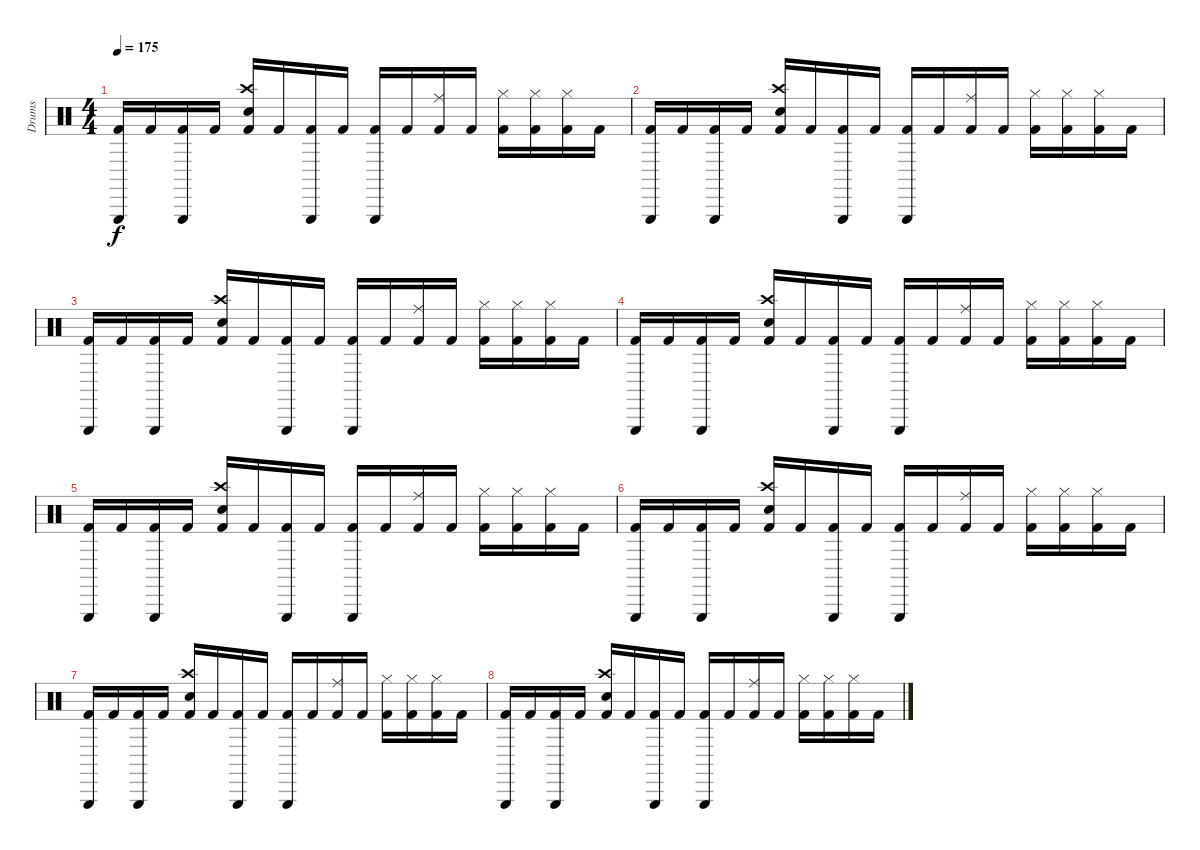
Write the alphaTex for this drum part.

\track ("Drums" "Drums") {instrument percussion}
\staff {score}
\articulation defaults
\ts (4 4)
\tempo 175
\clef neutral
\ks c
("Triangle (hit)" "Kick (hit) 2").16{dy f} "Kick (hit) 2".16 ("Triangle (hit)" "Kick (hit) 2").16 "Kick (hit) 2".16 ("Crash high (hit)" "Snare (hit) 2" "Kick (hit) 2").16 "Kick (hit) 2".16 ("Triangle (hit)" "Kick (hit) 2").16 "Kick (hit) 2".16 ("Triangle (hit)" "Kick (hit) 2").16 "Kick (hit) 2".16 ("Ride (middle)" "Kick (hit) 2").16 "Kick (hit) 2".16 ("Hi-Hat (closed)" "Kick (hit) 2").16 ("Hi-Hat (closed)" "Kick (hit) 2").16 ("Hi-Hat (closed)" "Kick (hit) 2").16 "Kick (hit) 2".16 |
("Triangle (hit)" "Kick (hit) 2").16 "Kick (hit) 2".16 ("Triangle (hit)" "Kick (hit) 2").16 "Kick (hit) 2".16 ("Crash high (hit)" "Snare (hit) 2" "Kick (hit) 2").16 "Kick (hit) 2".16 ("Triangle (hit)" "Kick (hit) 2").16 "Kick (hit) 2".16 ("Triangle (hit)" "Kick (hit) 2").16 "Kick (hit) 2".16 ("Ride (middle)" "Kick (hit) 2").16 "Kick (hit) 2".16 ("Hi-Hat (closed)" "Kick (hit) 2").16 ("Hi-Hat (closed)" "Kick (hit) 2").16 ("Hi-Hat (closed)" "Kick (hit) 2").16 "Kick (hit) 2".16 |
("Triangle (hit)" "Kick (hit) 2").16 "Kick (hit) 2".16 ("Triangle (hit)" "Kick (hit) 2").16 "Kick (hit) 2".16 ("Crash high (hit)" "Snare (hit) 2" "Kick (hit) 2").16 "Kick (hit) 2".16 ("Triangle (hit)" "Kick (hit) 2").16 "Kick (hit) 2".16 ("Triangle (hit)" "Kick (hit) 2").16 "Kick (hit) 2".16 ("Ride (middle)" "Kick (hit) 2").16 "Kick (hit) 2".16 ("Hi-Hat (closed)" "Kick (hit) 2").16 ("Hi-Hat (closed)" "Kick (hit) 2").16 ("Hi-Hat (closed)" "Kick (hit) 2").16 "Kick (hit) 2".16 |
("Triangle (hit)" "Kick (hit) 2").16 "Kick (hit) 2".16 ("Triangle (hit)" "Kick (hit) 2").16 "Kick (hit) 2".16 ("Crash high (hit)" "Snare (hit) 2" "Kick (hit) 2").16 "Kick (hit) 2".16 ("Triangle (hit)" "Kick (hit) 2").16 "Kick (hit) 2".16 ("Triangle (hit)" "Kick (hit) 2").16 "Kick (hit) 2".16 ("Ride (middle)" "Kick (hit) 2").16 "Kick (hit) 2".16 ("Hi-Hat (closed)" "Kick (hit) 2").16 ("Hi-Hat (closed)" "Kick (hit) 2").16 ("Hi-Hat (closed)" "Kick (hit) 2").16 "Kick (hit) 2".16 |
("Triangle (hit)" "Kick (hit) 2").16 "Kick (hit) 2".16 ("Triangle (hit)" "Kick (hit) 2").16 "Kick (hit) 2".16 ("Crash high (hit)" "Snare (hit) 2" "Kick (hit) 2").16 "Kick (hit) 2".16 ("Triangle (hit)" "Kick (hit) 2").16 "Kick (hit) 2".16 ("Triangle (hit)" "Kick (hit) 2").16 "Kick (hit) 2".16 ("Ride (middle)" "Kick (hit) 2").16 "Kick (hit) 2".16 ("Hi-Hat (closed)" "Kick (hit) 2").16 ("Hi-Hat (closed)" "Kick (hit) 2").16 ("Hi-Hat (closed)" "Kick (hit) 2").16 "Kick (hit) 2".16 |
("Triangle (hit)" "Kick (hit) 2").16 "Kick (hit) 2".16 ("Triangle (hit)" "Kick (hit) 2").16 "Kick (hit) 2".16 ("Crash high (hit)" "Snare (hit) 2" "Kick (hit) 2").16 "Kick (hit) 2".16 ("Triangle (hit)" "Kick (hit) 2").16 "Kick (hit) 2".16 ("Triangle (hit)" "Kick (hit) 2").16 "Kick (hit) 2".16 ("Ride (middle)" "Kick (hit) 2").16 "Kick (hit) 2".16 ("Hi-Hat (closed)" "Kick (hit) 2").16 ("Hi-Hat (closed)" "Kick (hit) 2").16 ("Hi-Hat (closed)" "Kick (hit) 2").16 "Kick (hit) 2".16 |
("Triangle (hit)" "Kick (hit) 2").16 "Kick (hit) 2".16 ("Triangle (hit)" "Kick (hit) 2").16 "Kick (hit) 2".16 ("Crash high (hit)" "Snare (hit) 2" "Kick (hit) 2").16 "Kick (hit) 2".16 ("Triangle (hit)" "Kick (hit) 2").16 "Kick (hit) 2".16 ("Triangle (hit)" "Kick (hit) 2").16 "Kick (hit) 2".16 ("Ride (middle)" "Kick (hit) 2").16 "Kick (hit) 2".16 ("Hi-Hat (closed)" "Kick (hit) 2").16 ("Hi-Hat (closed)" "Kick (hit) 2").16 ("Hi-Hat (closed)" "Kick (hit) 2").16 "Kick (hit) 2".16 |
("Triangle (hit)" "Kick (hit) 2").16 "Kick (hit) 2".16 ("Triangle (hit)" "Kick (hit) 2").16 "Kick (hit) 2".16 ("Crash high (hit)" "Snare (hit) 2" "Kick (hit) 2").16 "Kick (hit) 2".16 ("Triangle (hit)" "Kick (hit) 2").16 "Kick (hit) 2".16 ("Triangle (hit)" "Kick (hit) 2").16 "Kick (hit) 2".16 ("Ride (middle)" "Kick (hit) 2").16 "Kick (hit) 2".16 ("Hi-Hat (closed)" "Kick (hit) 2").16 ("Hi-Hat (closed)" "Kick (hit) 2").16 ("Hi-Hat (closed)" "Kick (hit) 2").16 "Kick (hit) 2".16
